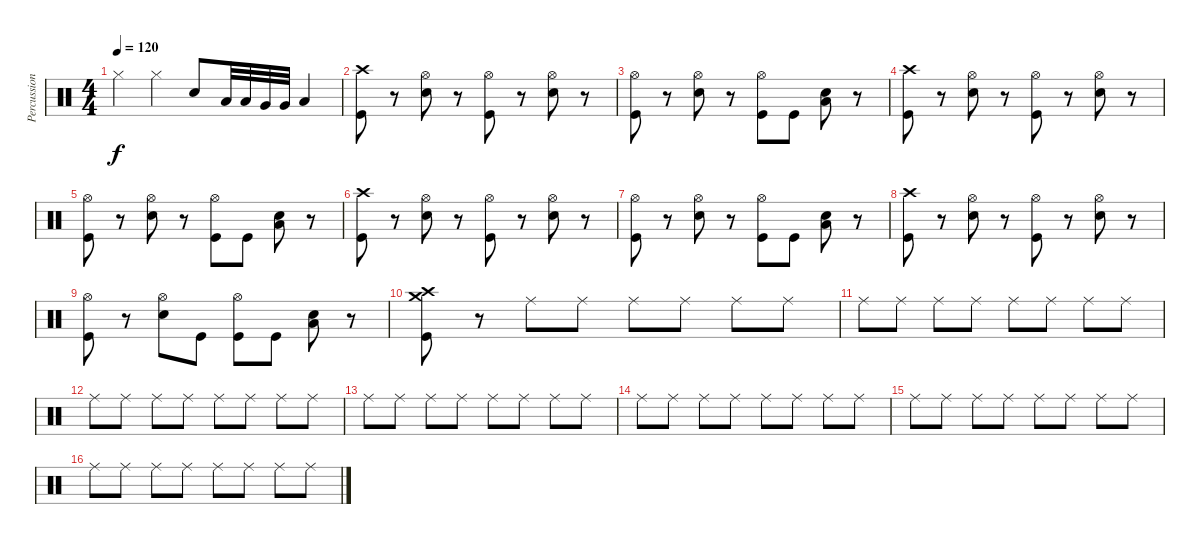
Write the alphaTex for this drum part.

\track ("Percussion" "Percussion") {instrument percussion}
\staff {score}
\articulation defaults
\ts (4 4)
\tempo 120
\clef neutral
\ks c "Hi-Hat (closed)".4{dy f} "Hi-Hat (closed)".4 "Electric Snare (hit)".8 "Low Tom (hit)".32 "Low Tom (hit)".32 "Very Low Tom (hit)".32 "Very Low Tom (hit)".32 "Low Floor Tom (hit)".4
|
("Crash high (hit)" "Kick (hit)").8 r.8 ("Electric Snare (hit)" "Hi-Hat (open)").8 r.8 ("Hi-Hat (open)" "Kick (hit)").8 r.8 ("Electric Snare (hit)" "Hi-Hat (open)").8 r.8 |
("Hi-Hat (open)" "Kick (hit)").8 r.8 ("Electric Snare (hit)" "Hi-Hat (open)").8 r.8 ("Hi-Hat (open)" "Kick (hit)").8 "Kick (hit)".8 ("Electric Snare (hit)" "Low Floor Tom (hit)").8 r.8 |
("Crash high (hit)" "Kick (hit)").8 r.8 ("Electric Snare (hit)" "Hi-Hat (open)").8 r.8 ("Hi-Hat (open)" "Kick (hit)").8 r.8 ("Electric Snare (hit)" "Hi-Hat (open)").8 r.8 |
("Hi-Hat (open)" "Kick (hit)").8 r.8 ("Electric Snare (hit)" "Hi-Hat (open)").8 r.8 ("Hi-Hat (open)" "Kick (hit)").8 "Kick (hit)".8 ("Electric Snare (hit)" "Low Floor Tom (hit)").8 r.8 |
("Crash high (hit)" "Kick (hit)").8 r.8 ("Electric Snare (hit)" "Hi-Hat (open)").8 r.8 ("Hi-Hat (open)" "Kick (hit)").8 r.8 ("Electric Snare (hit)" "Hi-Hat (open)").8 r.8 |
("Hi-Hat (open)" "Kick (hit)").8 r.8 ("Electric Snare (hit)" "Hi-Hat (open)").8 r.8 ("Hi-Hat (open)" "Kick (hit)").8 "Kick (hit)".8 ("Electric Snare (hit)" "Low Floor Tom (hit)").8 r.8 |
("Crash high (hit)" "Kick (hit)").8 r.8 ("Electric Snare (hit)" "Hi-Hat (open)").8 r.8 ("Hi-Hat (open)" "Kick (hit)").8 r.8 ("Electric Snare (hit)" "Hi-Hat (open)").8 r.8 |
("Hi-Hat (open)" "Kick (hit)").8 r.8 ("Electric Snare (hit)" "Hi-Hat (open)").8 "Kick (hit)".8 ("Hi-Hat (open)" "Kick (hit)").8 "Kick (hit)".8 ("Electric Snare (hit)" "Low Floor Tom (hit)").8 r.8 |
("Crash medium (hit)" "Crash high (hit)" "Kick (hit)").8 r.8 "Ride (middle)".8 "Ride (middle)".8 "Ride (middle)".8 "Ride (middle)".8 "Ride (middle)".8 "Ride (middle)".8 |
"Ride (middle)".8 "Ride (middle)".8 "Ride (middle)".8 "Ride (middle)".8 "Ride (middle)".8 "Ride (middle)".8 "Ride (middle)".8 "Ride (middle)".8 |
"Ride (middle)".8 "Ride (middle)".8 "Ride (middle)".8 "Ride (middle)".8 "Ride (middle)".8 "Ride (middle)".8 "Ride (middle)".8 "Ride (middle)".8 |
"Ride (middle)".8 "Ride (middle)".8 "Ride (middle)".8 "Ride (middle)".8 "Ride (middle)".8 "Ride (middle)".8 "Ride (middle)".8 "Ride (middle)".8 |
"Ride (middle)".8 "Ride (middle)".8 "Ride (middle)".8 "Ride (middle)".8 "Ride (middle)".8 "Ride (middle)".8 "Ride (middle)".8 "Ride (middle)".8 |
"Ride (middle)".8 "Ride (middle)".8 "Ride (middle)".8 "Ride (middle)".8 "Ride (middle)".8 "Ride (middle)".8 "Ride (middle)".8 "Ride (middle)".8 |
"Ride (middle)".8 "Ride (middle)".8 "Ride (middle)".8 "Ride (middle)".8 "Ride (middle)".8 "Ride (middle)".8 "Ride (middle)".8 "Ride (middle)".8
